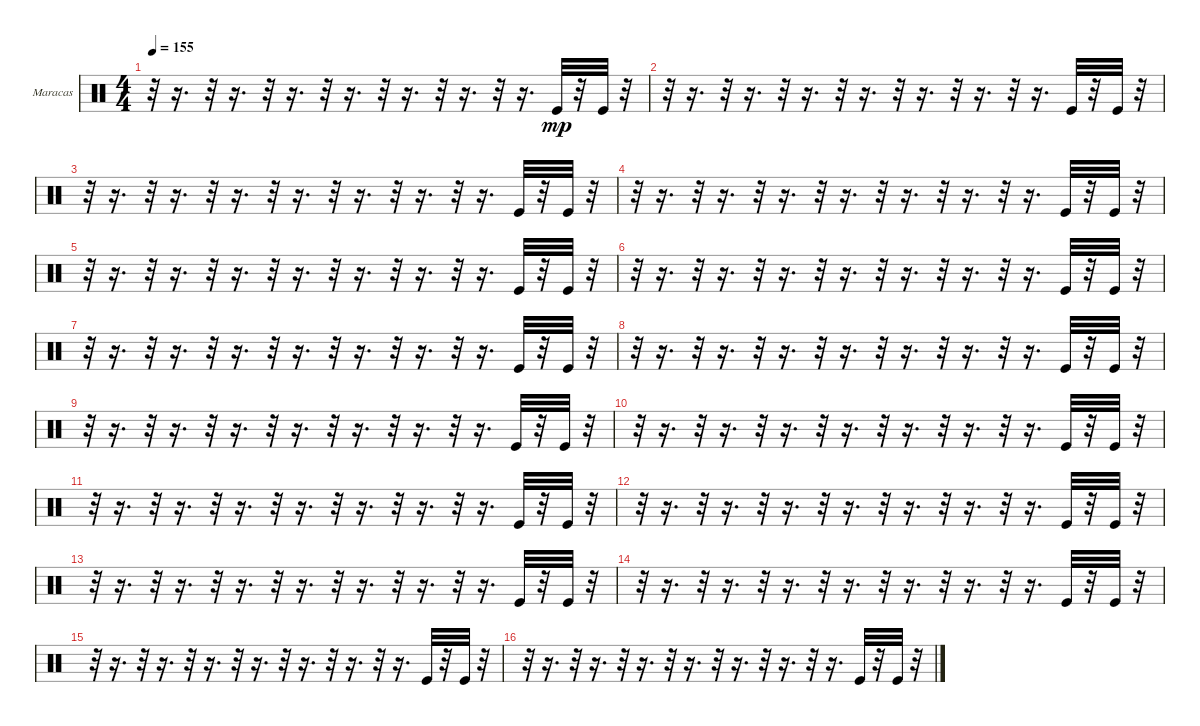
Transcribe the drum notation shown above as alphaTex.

\bracketExtendMode groupsimilarinstruments
\firstSystemTrackNameOrientation horizontal
\otherSystemsTrackNameOrientation horizontal
\track ("Е. Кулаков" "Maracas") {instrument percussion}
\staff {score}
\articulation defaults
\ts (4 4)
\tempo 155
\clef neutral
\ks c
r.32{dy mp} r.16{d} r.32 r.16{d} r.32 r.16{d} r.32 r.16{d} r.32 r.16{d} r.32 r.16{d} r.32 r.16{d} "Kick (hit)".32 r.32 "Kick (hit)".32 r.32 |
r.32 r.16{d} r.32 r.16{d} r.32 r.16{d} r.32 r.16{d} r.32 r.16{d} r.32 r.16{d} r.32 r.16{d} "Kick (hit)".32 r.32 "Kick (hit)".32 r.32 |
r.32 r.16{d} r.32 r.16{d} r.32 r.16{d} r.32 r.16{d} r.32 r.16{d} r.32 r.16{d} r.32 r.16{d} "Kick (hit)".32 r.32 "Kick (hit)".32 r.32 |
r.32 r.16{d} r.32 r.16{d} r.32 r.16{d} r.32 r.16{d} r.32 r.16{d} r.32 r.16{d} r.32 r.16{d} "Kick (hit)".32 r.32 "Kick (hit)".32 r.32 |
r.32 r.16{d} r.32 r.16{d} r.32 r.16{d} r.32 r.16{d} r.32 r.16{d} r.32 r.16{d} r.32 r.16{d} "Kick (hit)".32 r.32 "Kick (hit)".32 r.32 |
r.32 r.16{d} r.32 r.16{d} r.32 r.16{d} r.32 r.16{d} r.32 r.16{d} r.32 r.16{d} r.32 r.16{d} "Kick (hit)".32 r.32 "Kick (hit)".32 r.32 |
r.32 r.16{d} r.32 r.16{d} r.32 r.16{d} r.32 r.16{d} r.32 r.16{d} r.32 r.16{d} r.32 r.16{d} "Kick (hit)".32 r.32 "Kick (hit)".32 r.32 |
r.32 r.16{d} r.32 r.16{d} r.32 r.16{d} r.32 r.16{d} r.32 r.16{d} r.32 r.16{d} r.32 r.16{d} "Kick (hit)".32 r.32 "Kick (hit)".32 r.32 |
r.32 r.16{d} r.32 r.16{d} r.32 r.16{d} r.32 r.16{d} r.32 r.16{d} r.32 r.16{d} r.32 r.16{d} "Kick (hit)".32 r.32 "Kick (hit)".32 r.32 |
r.32 r.16{d} r.32 r.16{d} r.32 r.16{d} r.32 r.16{d} r.32 r.16{d} r.32 r.16{d} r.32 r.16{d} "Kick (hit)".32 r.32 "Kick (hit)".32 r.32 |
r.32 r.16{d} r.32 r.16{d} r.32 r.16{d} r.32 r.16{d} r.32 r.16{d} r.32 r.16{d} r.32 r.16{d} "Kick (hit)".32 r.32 "Kick (hit)".32 r.32 |
r.32 r.16{d} r.32 r.16{d} r.32 r.16{d} r.32 r.16{d} r.32 r.16{d} r.32 r.16{d} r.32 r.16{d} "Kick (hit)".32 r.32 "Kick (hit)".32 r.32 |
r.32 r.16{d} r.32 r.16{d} r.32 r.16{d} r.32 r.16{d} r.32 r.16{d} r.32 r.16{d} r.32 r.16{d} "Kick (hit)".32 r.32 "Kick (hit)".32 r.32 |
r.32 r.16{d} r.32 r.16{d} r.32 r.16{d} r.32 r.16{d} r.32 r.16{d} r.32 r.16{d} r.32 r.16{d} "Kick (hit)".32 r.32 "Kick (hit)".32 r.32 |
r.32 r.16{d} r.32 r.16{d} r.32 r.16{d} r.32 r.16{d} r.32 r.16{d} r.32 r.16{d} r.32 r.16{d} "Kick (hit)".32 r.32 "Kick (hit)".32 r.32 |
r.32 r.16{d} r.32 r.16{d} r.32 r.16{d} r.32 r.16{d} r.32 r.16{d} r.32 r.16{d} r.32 r.16{d} "Kick (hit)".32 r.32 "Kick (hit)".32 r.32
